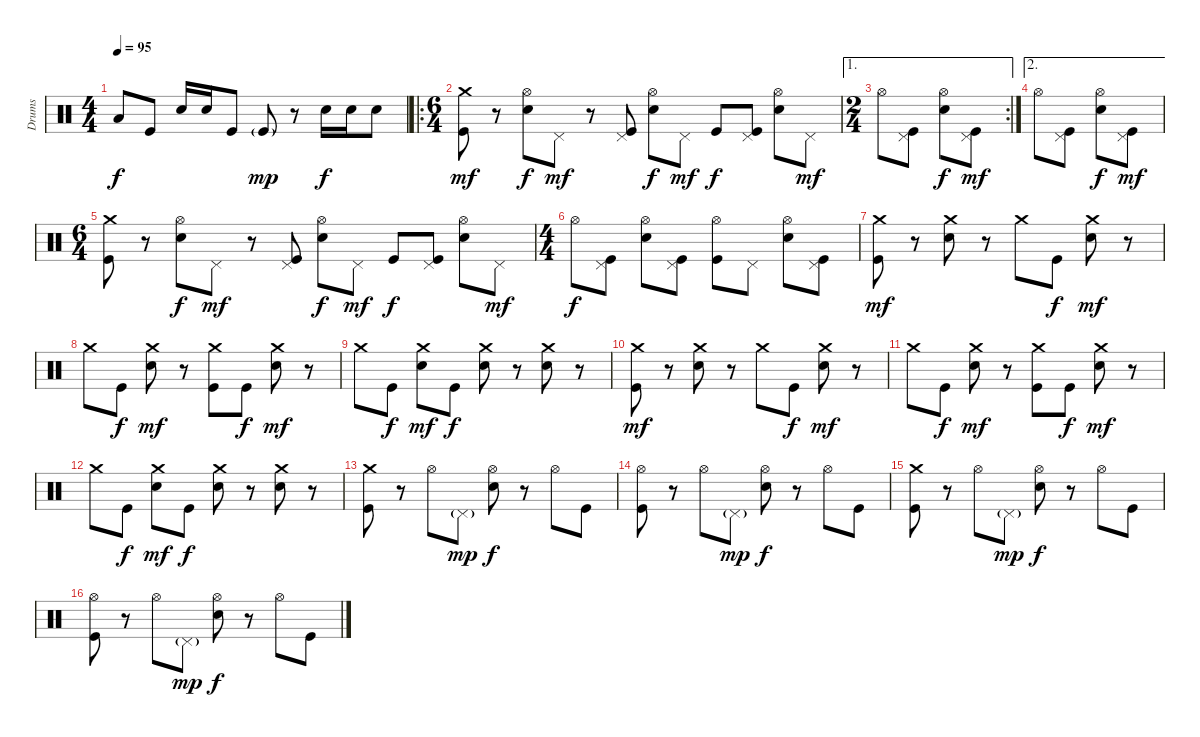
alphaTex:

\track ("Drums" "Drums") {instrument percussion}
\staff {score}
\articulation defaults
\ts (4 4)
\tempo 95
\clef neutral
\ks c "Low Floor Tom (hit)".8{dy f} "Kick (hit)".8 "Snare (hit) 2".16 "Snare (hit) 2".16 "Kick (hit)".8 "Kick (hit)"{g}.8{dy mp}
r.8 "Snare (hit) 2".16{dy f} "Snare (hit) 2".16 "Snare (hit) 2".8 |
\ro
\ts (6 4)
("Crash medium (hit)" "Kick (hit)").8{dy mf} r.8 ("Hi-Hat (open)" "Snare (hit) 2").8{dy f} "Pedal Hi-Hat (hit)".8{dy mf} r.8 ("Pedal Hi-Hat (hit)" "Kick (hit)").8 ("Hi-Hat (open)" "Snare (hit) 2").8{dy f} "Pedal Hi-Hat (hit)".8{dy mf} "Kick (hit)".8{dy f} ("Pedal Hi-Hat (hit)" "Kick (hit)").8 ("Hi-Hat (open)" "Snare (hit) 2").8 "Pedal Hi-Hat (hit)".8{dy mf} |
\ae 1
\rc 2
\ts (2 4)
"Hi-Hat (open)".8 ("Pedal Hi-Hat (hit)" "Kick (hit)").8 ("Hi-Hat (open)" "Snare (hit) 2").8{dy f} ("Pedal Hi-Hat (hit)" "Kick (hit)").8{dy mf} |
\ae 2 "Hi-Hat (open)".8
("Pedal Hi-Hat (hit)" "Kick (hit)").8 ("Hi-Hat (open)" "Snare (hit) 2").8{dy f} ("Pedal Hi-Hat (hit)" "Kick (hit)").8{dy mf} |
\ts (6 4)
("Crash medium (hit)" "Kick (hit)").8 r.8 ("Hi-Hat (open)" "Snare (hit) 2").8{dy f} "Pedal Hi-Hat (hit)".8{dy mf} r.8 ("Pedal Hi-Hat (hit)" "Kick (hit)").8 ("Hi-Hat (open)" "Snare (hit) 2").8{dy f} "Pedal Hi-Hat (hit)".8{dy mf} "Kick (hit)".8{dy f} ("Pedal Hi-Hat (hit)" "Kick (hit)").8 ("Hi-Hat (open)" "Snare (hit) 2").8 "Pedal Hi-Hat (hit)".8{dy mf} |
\ts (4 4)
"Hi-Hat (open)".8{dy f} ("Pedal Hi-Hat (hit)" "Kick (hit)").8 ("Hi-Hat (open)" "Snare (hit) 2").8 ("Pedal Hi-Hat (hit)" "Kick (hit)").8 ("Hi-Hat (open)" "Kick (hit)").8 "Pedal Hi-Hat (hit)".8 ("Hi-Hat (open)" "Snare (hit) 2").8 ("Pedal Hi-Hat (hit)" "Kick (hit)").8 |
("Crash medium (hit)" "Kick (hit)").8{dy mf} r.8 ("Crash medium (hit)" "Snare (hit) 2").8 r.8 "Crash medium (hit)".8 "Kick (hit)".8{dy f} ("Crash medium (hit)" "Snare (hit) 2").8{dy mf} r.8 |
"Crash medium (hit)".8 "Kick (hit)".8{dy f} ("Crash medium (hit)" "Snare (hit) 2").8{dy mf} r.8 ("Crash medium (hit)" "Kick (hit)").8 "Kick (hit)".8{dy f} ("Crash medium (hit)" "Snare (hit) 2").8{dy mf} r.8 |
"Crash medium (hit)".8 "Kick (hit)".8{dy f} ("Crash medium (hit)" "Snare (hit) 2").8{dy mf} "Kick (hit)".8{dy f} ("Crash medium (hit)" "Snare (hit) 2").8 r.8 ("Crash medium (hit)" "Snare (hit) 2").8 r.8 |
("Crash medium (hit)" "Kick (hit)").8{dy mf} r.8 ("Crash medium (hit)" "Snare (hit) 2").8 r.8 "Crash medium (hit)".8 "Kick (hit)".8{dy f} ("Crash medium (hit)" "Snare (hit) 2").8{dy mf} r.8 |
"Crash medium (hit)".8 "Kick (hit)".8{dy f} ("Crash medium (hit)" "Snare (hit) 2").8{dy mf} r.8 ("Crash medium (hit)" "Kick (hit)").8 "Kick (hit)".8{dy f} ("Crash medium (hit)" "Snare (hit) 2").8{dy mf} r.8 |
"Crash medium (hit)".8 "Kick (hit)".8{dy f} ("Crash medium (hit)" "Snare (hit) 2").8{dy mf} "Kick (hit)".8{dy f} ("Crash medium (hit)" "Snare (hit) 2").8 r.8 ("Crash medium (hit)" "Snare (hit) 2").8 r.8 |
("Crash medium (hit)" "Kick (hit)").8 r.8 "Hi-Hat (open)".8 "Pedal Hi-Hat (hit)"{g}.8{dy mp} ("Hi-Hat (open)" "Snare (hit) 2").8{dy f} r.8 "Hi-Hat (open)".8 "Kick (hit)".8 |
("Hi-Hat (open)" "Kick (hit)").8 r.8 "Hi-Hat (open)".8 "Pedal Hi-Hat (hit)"{g}.8{dy mp} ("Hi-Hat (open)" "Snare (hit) 2").8{dy f} r.8 "Hi-Hat (open)".8 "Kick (hit)".8 |
("Crash medium (hit)" "Kick (hit)").8 r.8 "Hi-Hat (open)".8 "Pedal Hi-Hat (hit)"{g}.8{dy mp} ("Hi-Hat (open)" "Snare (hit) 2").8{dy f} r.8 "Hi-Hat (open)".8 "Kick (hit)".8 |
("Hi-Hat (open)" "Kick (hit)").8 r.8 "Hi-Hat (open)".8 "Pedal Hi-Hat (hit)"{g}.8{dy mp} ("Hi-Hat (open)" "Snare (hit) 2").8{dy f} r.8 "Hi-Hat (open)".8 "Kick (hit)".8
